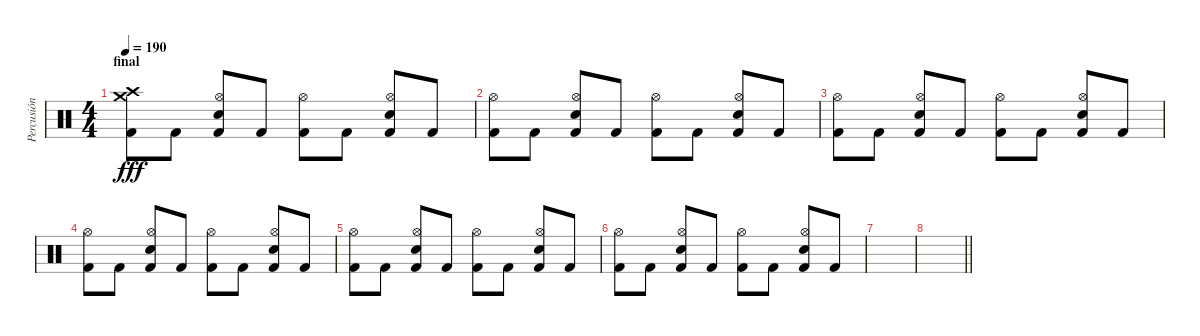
\track ("Percusión" "Percusión") {instrument percussion}
\staff {score}
\articulation defaults
\ts (4 4)
\section ("" "final")
\tempo 190
\clef neutral
\ks c
("Crash high (hit)" "Crash medium (hit)" "Kick (hit) 2").8{dy fff} "Kick (hit) 2".8 ("Hi-Hat (open)" "Electric Snare (hit)" "Kick (hit) 2").8 "Kick (hit) 2".8 ("Hi-Hat (open)" "Kick (hit) 2").8 "Kick (hit) 2".8 ("Hi-Hat (open)" "Electric Snare (hit)" "Kick (hit) 2").8 "Kick (hit) 2".8 |
("Hi-Hat (open)" "Kick (hit) 2").8 "Kick (hit) 2".8 ("Hi-Hat (open)" "Electric Snare (hit)" "Kick (hit) 2").8 "Kick (hit) 2".8 ("Hi-Hat (open)" "Kick (hit) 2").8 "Kick (hit) 2".8 ("Hi-Hat (open)" "Electric Snare (hit)" "Kick (hit) 2").8 "Kick (hit) 2".8 |
("Hi-Hat (open)" "Kick (hit) 2").8 "Kick (hit) 2".8 ("Hi-Hat (open)" "Electric Snare (hit)" "Kick (hit) 2").8 "Kick (hit) 2".8 ("Hi-Hat (open)" "Kick (hit) 2").8 "Kick (hit) 2".8 ("Hi-Hat (open)" "Electric Snare (hit)" "Kick (hit) 2").8 "Kick (hit) 2".8 |
("Hi-Hat (open)" "Kick (hit) 2").8 "Kick (hit) 2".8 ("Hi-Hat (open)" "Electric Snare (hit)" "Kick (hit) 2").8 "Kick (hit) 2".8 ("Hi-Hat (open)" "Kick (hit) 2").8 "Kick (hit) 2".8 ("Hi-Hat (open)" "Electric Snare (hit)" "Kick (hit) 2").8 "Kick (hit) 2".8 |
("Hi-Hat (open)" "Kick (hit) 2").8 "Kick (hit) 2".8 ("Hi-Hat (open)" "Electric Snare (hit)" "Kick (hit) 2").8 "Kick (hit) 2".8 ("Hi-Hat (open)" "Kick (hit) 2").8 "Kick (hit) 2".8 ("Hi-Hat (open)" "Electric Snare (hit)" "Kick (hit) 2").8 "Kick (hit) 2".8 |
("Hi-Hat (open)" "Kick (hit) 2").8 "Kick (hit) 2".8 ("Hi-Hat (open)" "Electric Snare (hit)" "Kick (hit) 2").8 "Kick (hit) 2".8 ("Hi-Hat (open)" "Kick (hit) 2").8 "Kick (hit) 2".8 ("Hi-Hat (open)" "Electric Snare (hit)" "Kick (hit) 2").8 "Kick (hit) 2".8 |
|
\barLineRight lightlight
